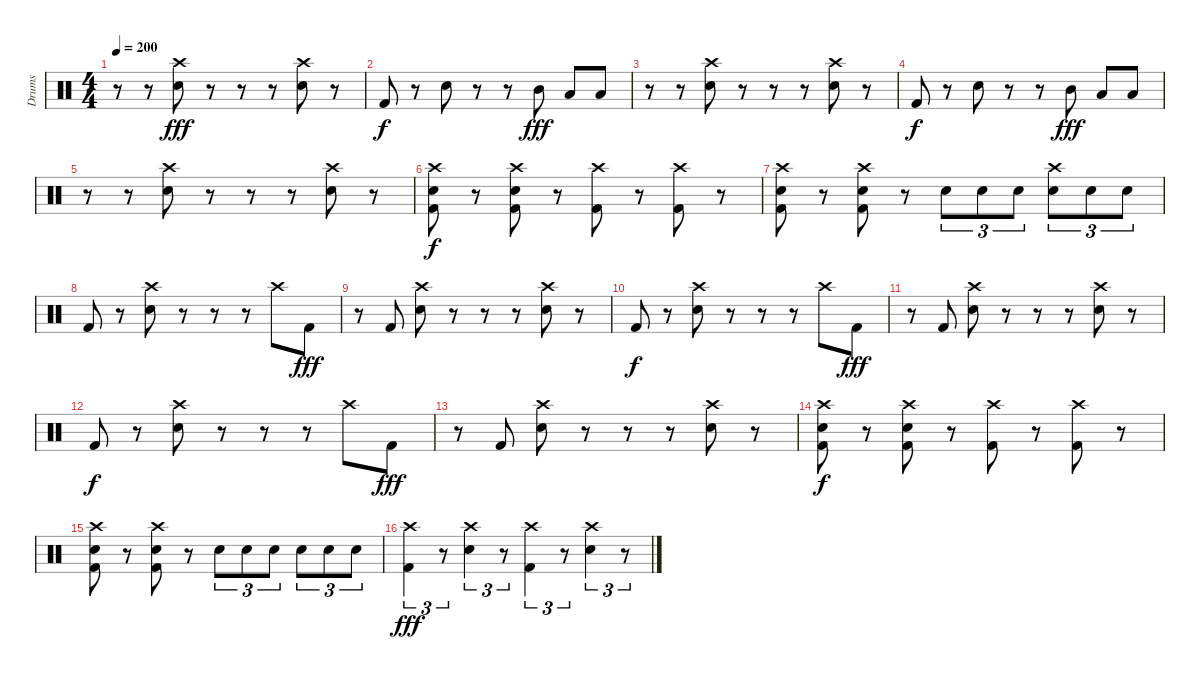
\track ("Drums" "Drums") {instrument percussion}
\staff {score}
\articulation defaults
\ts (4 4)
\tempo 200
\clef neutral
\ks c
r.8{dy fff} r.8 ("Crash high (hit)" "Snare (hit) 2").8 r.8 r.8 r.8 ("Crash high (hit)" "Snare (hit) 2").8 r.8 |
"Kick (hit) 2".8{dy f} r.8 "Snare (hit) 2".8 r.8 r.8 "Mid Tom (hit)".8{dy fff} "Low Tom (hit)".8 "Low Floor Tom (hit)".8 |
r.8 r.8 ("Crash high (hit)" "Snare (hit) 2").8 r.8 r.8 r.8 ("Crash high (hit)" "Snare (hit) 2").8 r.8 |
"Kick (hit) 2".8{dy f} r.8 "Snare (hit) 2".8 r.8 r.8 "Mid Tom (hit)".8{dy fff} "Low Tom (hit)".8 "Low Floor Tom (hit)".8 |
r.8 r.8 ("Crash high (hit)" "Snare (hit) 2").8 r.8 r.8 r.8 ("Crash high (hit)" "Snare (hit) 2").8 r.8 |
("Crash high (hit)" "Snare (hit) 2" "Kick (hit) 2").8{dy f} r.8 ("Crash high (hit)" "Snare (hit) 2" "Kick (hit) 2").8 r.8 ("Crash high (hit)" "Kick (hit) 2").8 r.8 ("Crash high (hit)" "Kick (hit) 2").8 r.8 |
("Crash high (hit)" "Snare (hit) 2" "Kick (hit) 2").8 r.8 ("Crash high (hit)" "Snare (hit) 2" "Kick (hit) 2").8 r.8 "Snare (hit) 2".8{tu (3 2)} "Snare (hit) 2".8{tu (3 2)} "Snare (hit) 2".8{tu (3 2)} ("Crash high (hit)" "Snare (hit) 2").8{tu (3 2)} "Snare (hit) 2".8{tu (3 2)} "Snare (hit) 2".8{tu (3 2)} |
"Kick (hit) 2".8 r.8 ("Crash high (hit)" "Snare (hit) 2").8 r.8 r.8 r.8 "Crash high (hit)".8 "Kick (hit) 2".8{dy fff} |
r.8 "Kick (hit) 2".8 ("Crash high (hit)" "Snare (hit) 2").8 r.8 r.8 r.8 ("Crash high (hit)" "Snare (hit) 2").8 r.8 |
"Kick (hit) 2".8{dy f} r.8 ("Crash high (hit)" "Snare (hit) 2").8 r.8 r.8 r.8 "Crash high (hit)".8 "Kick (hit) 2".8{dy fff} |
r.8 "Kick (hit) 2".8 ("Crash high (hit)" "Snare (hit) 2").8 r.8 r.8 r.8 ("Crash high (hit)" "Snare (hit) 2").8 r.8 |
"Kick (hit) 2".8{dy f} r.8 ("Crash high (hit)" "Snare (hit) 2").8 r.8 r.8 r.8 "Crash high (hit)".8 "Kick (hit) 2".8{dy fff} |
r.8 "Kick (hit) 2".8 ("Crash high (hit)" "Snare (hit) 2").8 r.8 r.8 r.8 ("Crash high (hit)" "Snare (hit) 2").8 r.8 |
("Crash high (hit)" "Snare (hit) 2" "Kick (hit) 2").8{dy f} r.8 ("Crash high (hit)" "Snare (hit) 2" "Kick (hit) 2").8 r.8 ("Crash high (hit)" "Kick (hit) 2").8 r.8 ("Crash high (hit)" "Kick (hit) 2").8 r.8 |
("Crash high (hit)" "Snare (hit) 2" "Kick (hit) 2").8 r.8 ("Crash high (hit)" "Snare (hit) 2" "Kick (hit) 2").8 r.8 "Snare (hit) 2".8{tu (3 2)} "Snare (hit) 2".8{tu (3 2)} "Snare (hit) 2".8{tu (3 2)} "Snare (hit) 2".8{tu (3 2)} "Snare (hit) 2".8{tu (3 2)} "Snare (hit) 2".8{tu (3 2)} |
("Crash high (hit)" "Kick (hit) 2").4{tu (3 2) dy fff} r.8{tu (3 2)} ("Crash high (hit)" "Snare (hit) 2").4{tu (3 2)} r.8{tu (3 2)} ("Crash high (hit)" "Kick (hit) 2").4{tu (3 2)} r.8{tu (3 2)} ("Crash high (hit)" "Snare (hit) 2").4{tu (3 2)} r.8{tu (3 2)}
